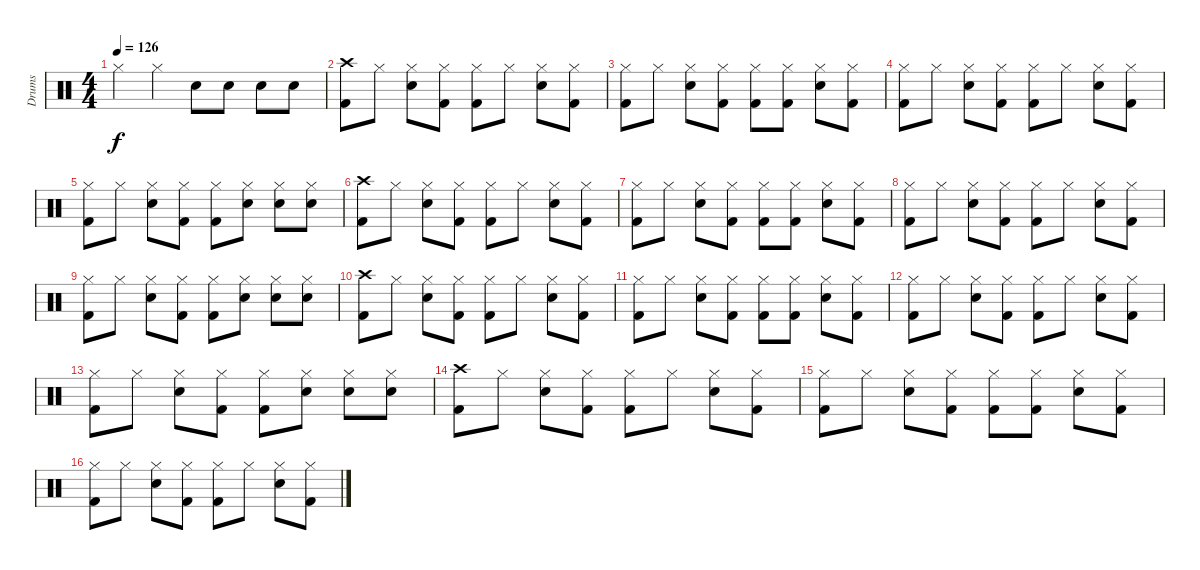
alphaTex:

\track ("Drums" "Drums") {instrument percussion}
\staff {score}
\articulation defaults
\ts (4 4)
\tempo 126
\clef neutral
\ks c "Hi-Hat (closed)".4{dy f} "Hi-Hat (closed)".4 "Snare (hit) 2".8 "Snare (hit) 2".8 "Snare (hit) 2".8 "Snare (hit) 2".8
|
("Kick (hit) 2" "Crash high (hit)").8 "Hi-Hat (closed)".8 ("Snare (hit) 2" "Hi-Hat (closed)").8 ("Kick (hit) 2" "Hi-Hat (closed)").8 ("Kick (hit) 2" "Hi-Hat (closed)").8 "Hi-Hat (closed)".8 ("Snare (hit) 2" "Hi-Hat (closed)").8 ("Kick (hit) 2" "Hi-Hat (closed)").8 |
("Kick (hit) 2" "Hi-Hat (closed)").8 "Hi-Hat (closed)".8 ("Snare (hit) 2" "Hi-Hat (closed)").8 ("Kick (hit) 2" "Hi-Hat (closed)").8 ("Kick (hit) 2" "Hi-Hat (closed)").8 ("Kick (hit) 2" "Hi-Hat (closed)").8 ("Snare (hit) 2" "Hi-Hat (closed)").8 ("Kick (hit) 2" "Hi-Hat (closed)").8 |
("Kick (hit) 2" "Hi-Hat (closed)").8 "Hi-Hat (closed)".8 ("Snare (hit) 2" "Hi-Hat (closed)").8 ("Kick (hit) 2" "Hi-Hat (closed)").8 ("Kick (hit) 2" "Hi-Hat (closed)").8 "Hi-Hat (closed)".8 ("Snare (hit) 2" "Hi-Hat (closed)").8 ("Kick (hit) 2" "Hi-Hat (closed)").8 |
("Kick (hit) 2" "Hi-Hat (closed)").8 "Hi-Hat (closed)".8 ("Snare (hit) 2" "Hi-Hat (closed)").8 ("Kick (hit) 2" "Hi-Hat (closed)").8 ("Kick (hit) 2" "Hi-Hat (closed)").8 ("Snare (hit) 2" "Hi-Hat (closed)").8 ("Snare (hit) 2" "Hi-Hat (closed)").8 ("Snare (hit) 2" "Hi-Hat (closed)").8 |
("Kick (hit) 2" "Crash high (hit)").8 "Hi-Hat (closed)".8 ("Snare (hit) 2" "Hi-Hat (closed)").8 ("Kick (hit) 2" "Hi-Hat (closed)").8 ("Kick (hit) 2" "Hi-Hat (closed)").8 "Hi-Hat (closed)".8 ("Snare (hit) 2" "Hi-Hat (closed)").8 ("Kick (hit) 2" "Hi-Hat (closed)").8 |
("Kick (hit) 2" "Hi-Hat (closed)").8 "Hi-Hat (closed)".8 ("Snare (hit) 2" "Hi-Hat (closed)").8 ("Kick (hit) 2" "Hi-Hat (closed)").8 ("Kick (hit) 2" "Hi-Hat (closed)").8 ("Kick (hit) 2" "Hi-Hat (closed)").8 ("Snare (hit) 2" "Hi-Hat (closed)").8 ("Kick (hit) 2" "Hi-Hat (closed)").8 |
("Kick (hit) 2" "Hi-Hat (closed)").8 "Hi-Hat (closed)".8 ("Snare (hit) 2" "Hi-Hat (closed)").8 ("Kick (hit) 2" "Hi-Hat (closed)").8 ("Kick (hit) 2" "Hi-Hat (closed)").8 "Hi-Hat (closed)".8 ("Snare (hit) 2" "Hi-Hat (closed)").8 ("Kick (hit) 2" "Hi-Hat (closed)").8 |
("Kick (hit) 2" "Hi-Hat (closed)").8 "Hi-Hat (closed)".8 ("Snare (hit) 2" "Hi-Hat (closed)").8 ("Kick (hit) 2" "Hi-Hat (closed)").8 ("Kick (hit) 2" "Hi-Hat (closed)").8 ("Snare (hit) 2" "Hi-Hat (closed)").8 ("Snare (hit) 2" "Hi-Hat (closed)").8 ("Snare (hit) 2" "Hi-Hat (closed)").8 |
("Kick (hit) 2" "Crash high (hit)").8 "Hi-Hat (closed)".8 ("Snare (hit) 2" "Hi-Hat (closed)").8 ("Kick (hit) 2" "Hi-Hat (closed)").8 ("Kick (hit) 2" "Hi-Hat (closed)").8 "Hi-Hat (closed)".8 ("Snare (hit) 2" "Hi-Hat (closed)").8 ("Kick (hit) 2" "Hi-Hat (closed)").8 |
("Kick (hit) 2" "Hi-Hat (closed)").8 "Hi-Hat (closed)".8 ("Snare (hit) 2" "Hi-Hat (closed)").8 ("Kick (hit) 2" "Hi-Hat (closed)").8 ("Kick (hit) 2" "Hi-Hat (closed)").8 ("Kick (hit) 2" "Hi-Hat (closed)").8 ("Snare (hit) 2" "Hi-Hat (closed)").8 ("Kick (hit) 2" "Hi-Hat (closed)").8 |
("Kick (hit) 2" "Hi-Hat (closed)").8 "Hi-Hat (closed)".8 ("Snare (hit) 2" "Hi-Hat (closed)").8 ("Kick (hit) 2" "Hi-Hat (closed)").8 ("Kick (hit) 2" "Hi-Hat (closed)").8 "Hi-Hat (closed)".8 ("Snare (hit) 2" "Hi-Hat (closed)").8 ("Kick (hit) 2" "Hi-Hat (closed)").8 |
("Kick (hit) 2" "Hi-Hat (closed)").8 "Hi-Hat (closed)".8 ("Snare (hit) 2" "Hi-Hat (closed)").8 ("Kick (hit) 2" "Hi-Hat (closed)").8 ("Kick (hit) 2" "Hi-Hat (closed)").8 ("Snare (hit) 2" "Hi-Hat (closed)").8 ("Snare (hit) 2" "Hi-Hat (closed)").8 ("Snare (hit) 2" "Hi-Hat (closed)").8 |
("Kick (hit) 2" "Crash high (hit)").8 "Hi-Hat (closed)".8 ("Snare (hit) 2" "Hi-Hat (closed)").8 ("Kick (hit) 2" "Hi-Hat (closed)").8 ("Kick (hit) 2" "Hi-Hat (closed)").8 "Hi-Hat (closed)".8 ("Snare (hit) 2" "Hi-Hat (closed)").8 ("Kick (hit) 2" "Hi-Hat (closed)").8 |
("Kick (hit) 2" "Hi-Hat (closed)").8 "Hi-Hat (closed)".8 ("Snare (hit) 2" "Hi-Hat (closed)").8 ("Kick (hit) 2" "Hi-Hat (closed)").8 ("Kick (hit) 2" "Hi-Hat (closed)").8 ("Kick (hit) 2" "Hi-Hat (closed)").8 ("Snare (hit) 2" "Hi-Hat (closed)").8 ("Kick (hit) 2" "Hi-Hat (closed)").8 |
("Kick (hit) 2" "Hi-Hat (closed)").8 "Hi-Hat (closed)".8 ("Snare (hit) 2" "Hi-Hat (closed)").8 ("Kick (hit) 2" "Hi-Hat (closed)").8 ("Kick (hit) 2" "Hi-Hat (closed)").8 "Hi-Hat (closed)".8 ("Snare (hit) 2" "Hi-Hat (closed)").8 ("Kick (hit) 2" "Hi-Hat (closed)").8
